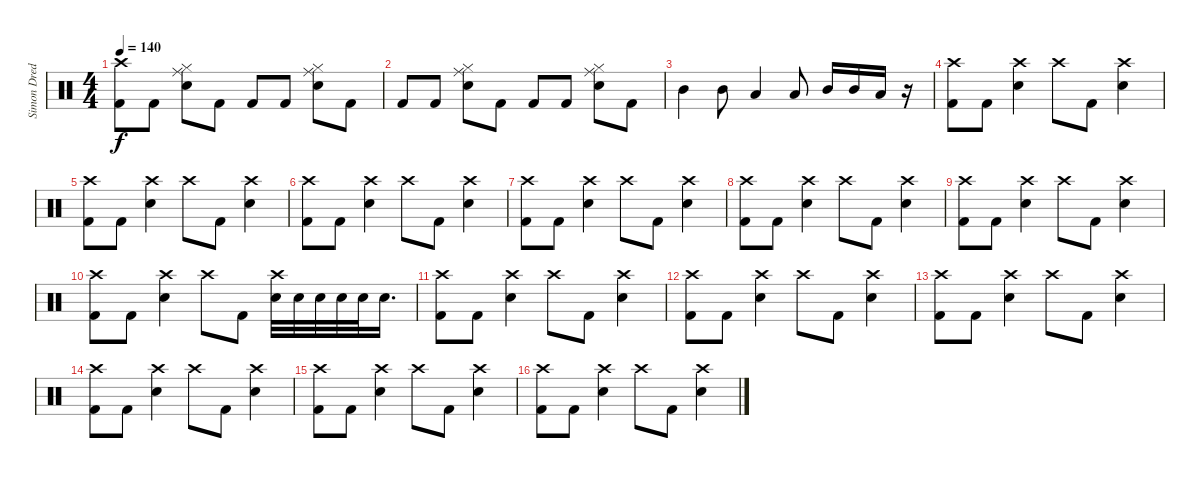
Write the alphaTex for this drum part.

\track ("Simon Dredo" "Simon Dred") {instrument percussion}
\staff {score}
\articulation defaults
\ts (4 4)
\tempo 140
\clef neutral
\ks c
("Crash high (hit)" "Kick (hit) 2").8{dy f} "Kick (hit) 2".8 ("Hi-Hat (closed)" "Ride (middle)" "Snare (hit) 2").8 "Kick (hit) 2".8 "Kick (hit) 2".8 "Kick (hit) 2".8 ("Hi-Hat (closed)" "Ride (middle)" "Snare (hit) 2").8 "Kick (hit) 2".8 |
"Kick (hit) 2".8 "Kick (hit) 2".8 ("Hi-Hat (closed)" "Ride (middle)" "Snare (hit) 2").8 "Kick (hit) 2".8 "Kick (hit) 2".8 "Kick (hit) 2".8 ("Hi-Hat (closed)" "Ride (middle)" "Snare (hit) 2").8 "Kick (hit) 2".8 |
"Mid Tom (hit)".4 "Mid Tom (hit)".8 "Low Tom (hit)".4 "Low Tom (hit)".8 "Mid Tom (hit)".16 "Mid Tom (hit)".16 "Low Tom (hit)".16 r.16 |
("Crash high (hit)" "Kick (hit) 2").8 "Kick (hit) 2".8 ("Crash high (hit)" "Electric Snare (hit)").4 "Crash high (hit)".8 "Kick (hit) 2".8 ("Crash high (hit)" "Electric Snare (hit)").4 |
("Crash high (hit)" "Kick (hit) 2").8 "Kick (hit) 2".8 ("Crash high (hit)" "Electric Snare (hit)").4 "Crash high (hit)".8 "Kick (hit) 2".8 ("Crash high (hit)" "Electric Snare (hit)").4 |
("Crash high (hit)" "Kick (hit) 2").8 "Kick (hit) 2".8 ("Crash high (hit)" "Electric Snare (hit)").4 "Crash high (hit)".8 "Kick (hit) 2".8 ("Crash high (hit)" "Electric Snare (hit)").4 |
("Crash high (hit)" "Kick (hit) 2").8 "Kick (hit) 2".8 ("Crash high (hit)" "Electric Snare (hit)").4 "Crash high (hit)".8 "Kick (hit) 2".8 ("Crash high (hit)" "Electric Snare (hit)").4 |
("Crash high (hit)" "Kick (hit) 2").8 "Kick (hit) 2".8 ("Crash high (hit)" "Electric Snare (hit)").4 "Crash high (hit)".8 "Kick (hit) 2".8 ("Crash high (hit)" "Electric Snare (hit)").4 |
("Crash high (hit)" "Kick (hit) 2").8 "Kick (hit) 2".8 ("Crash high (hit)" "Electric Snare (hit)").4 "Crash high (hit)".8 "Kick (hit) 2".8 ("Crash high (hit)" "Electric Snare (hit)").4 |
("Crash high (hit)" "Kick (hit) 2").8 "Kick (hit) 2".8 ("Crash high (hit)" "Electric Snare (hit)").4 "Crash high (hit)".8 "Kick (hit) 2".8 ("Crash high (hit)" "Electric Snare (hit)").32 "Electric Snare (hit)".32 "Electric Snare (hit)".32 "Electric Snare (hit)".32 "Electric Snare (hit)".32 "Electric Snare (hit)".16{d} |
("Crash high (hit)" "Kick (hit) 2").8 "Kick (hit) 2".8 ("Crash high (hit)" "Electric Snare (hit)").4 "Crash high (hit)".8 "Kick (hit) 2".8 ("Crash high (hit)" "Electric Snare (hit)").4 |
("Crash high (hit)" "Kick (hit) 2").8 "Kick (hit) 2".8 ("Crash high (hit)" "Electric Snare (hit)").4 "Crash high (hit)".8 "Kick (hit) 2".8 ("Crash high (hit)" "Electric Snare (hit)").4 |
("Crash high (hit)" "Kick (hit) 2").8 "Kick (hit) 2".8 ("Crash high (hit)" "Electric Snare (hit)").4 "Crash high (hit)".8 "Kick (hit) 2".8 ("Crash high (hit)" "Electric Snare (hit)").4 |
("Crash high (hit)" "Kick (hit) 2").8 "Kick (hit) 2".8 ("Crash high (hit)" "Electric Snare (hit)").4 "Crash high (hit)".8 "Kick (hit) 2".8 ("Crash high (hit)" "Electric Snare (hit)").4 |
("Crash high (hit)" "Kick (hit) 2").8 "Kick (hit) 2".8 ("Crash high (hit)" "Electric Snare (hit)").4 "Crash high (hit)".8 "Kick (hit) 2".8 ("Crash high (hit)" "Electric Snare (hit)").4 |
("Crash high (hit)" "Kick (hit) 2").8 "Kick (hit) 2".8 ("Crash high (hit)" "Electric Snare (hit)").4 "Crash high (hit)".8 "Kick (hit) 2".8 ("Crash high (hit)" "Electric Snare (hit)").4
